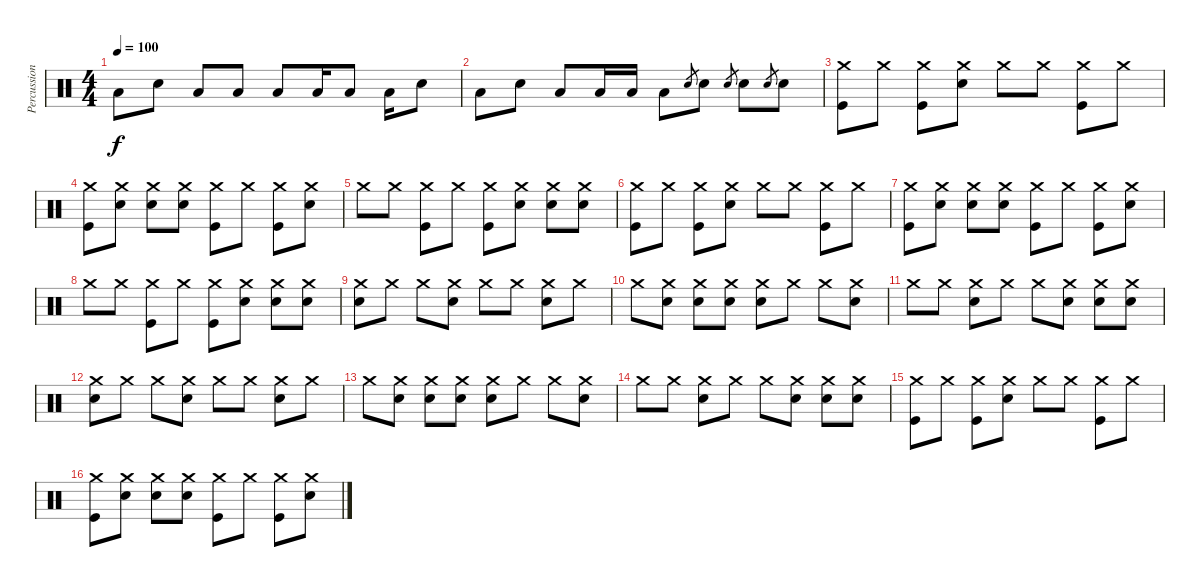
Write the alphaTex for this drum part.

\track ("Percussion" "Percussion") {instrument percussion}
\staff {score}
\articulation defaults
\ts (4 4)
\tempo 100
\clef neutral
\ks c "Low Floor Tom (hit)".8{dy f} "Electric Snare (hit)".8 "Low Floor Tom (hit)".8 "Low Floor Tom (hit)".8 "Low Floor Tom (hit)".8 "Low Floor Tom (hit)".16 "Low Floor Tom (hit)".8 "Low Floor Tom (hit)".16 "Electric Snare (hit)".8
|
"Low Floor Tom (hit)".8 "Electric Snare (hit)".8 "Low Floor Tom (hit)".8 "Low Floor Tom (hit)".16 "Low Floor Tom (hit)".16 "Low Floor Tom (hit)".8 "Electric Snare (hit)".8{gr} "Electric Snare (hit)".8 "Electric Snare (hit)".8{gr} "Electric Snare (hit)".8 "Electric Snare (hit)".8{gr} "Electric Snare (hit)".8 |
("Crash medium (hit)" "Kick (hit)").8 "Crash medium (hit)".8 ("Crash medium (hit)" "Kick (hit)").8 ("Crash medium (hit)" "Electric Snare (hit)").8 "Crash medium (hit)".8 "Crash medium (hit)".8 ("Crash medium (hit)" "Kick (hit)").8 "Crash medium (hit)".8 |
("Crash medium (hit)" "Kick (hit)").8 ("Crash medium (hit)" "Electric Snare (hit)").8 ("Crash medium (hit)" "Electric Snare (hit)").8 ("Crash medium (hit)" "Electric Snare (hit)").8 ("Crash medium (hit)" "Kick (hit)").8 "Crash medium (hit)".8 ("Crash medium (hit)" "Kick (hit)").8 ("Crash medium (hit)" "Electric Snare (hit)").8 |
"Crash medium (hit)".8 "Crash medium (hit)".8 ("Crash medium (hit)" "Kick (hit)").8 "Crash medium (hit)".8 ("Crash medium (hit)" "Kick (hit)").8 ("Crash medium (hit)" "Electric Snare (hit)").8 ("Crash medium (hit)" "Electric Snare (hit)").8 ("Crash medium (hit)" "Electric Snare (hit)").8 |
("Crash medium (hit)" "Kick (hit)").8 "Crash medium (hit)".8 ("Crash medium (hit)" "Kick (hit)").8 ("Crash medium (hit)" "Electric Snare (hit)").8 "Crash medium (hit)".8 "Crash medium (hit)".8 ("Crash medium (hit)" "Kick (hit)").8 "Crash medium (hit)".8 |
("Crash medium (hit)" "Kick (hit)").8 ("Crash medium (hit)" "Electric Snare (hit)").8 ("Crash medium (hit)" "Electric Snare (hit)").8 ("Crash medium (hit)" "Electric Snare (hit)").8 ("Crash medium (hit)" "Kick (hit)").8 "Crash medium (hit)".8 ("Crash medium (hit)" "Kick (hit)").8 ("Crash medium (hit)" "Electric Snare (hit)").8 |
"Crash medium (hit)".8 "Crash medium (hit)".8 ("Crash medium (hit)" "Kick (hit)").8 "Crash medium (hit)".8 ("Crash medium (hit)" "Kick (hit)").8 ("Crash medium (hit)" "Electric Snare (hit)").8 ("Crash medium (hit)" "Electric Snare (hit)").8 ("Crash medium (hit)" "Electric Snare (hit)").8 |
("Crash medium (hit)" "Electric Snare (hit)").8 "Crash medium (hit)".8 "Crash medium (hit)".8 ("Crash medium (hit)" "Electric Snare (hit)").8 "Crash medium (hit)".8 "Crash medium (hit)".8 ("Crash medium (hit)" "Electric Snare (hit)").8 "Crash medium (hit)".8 |
"Crash medium (hit)".8 ("Crash medium (hit)" "Electric Snare (hit)").8 ("Crash medium (hit)" "Electric Snare (hit)").8 ("Crash medium (hit)" "Electric Snare (hit)").8 ("Crash medium (hit)" "Electric Snare (hit)").8 "Crash medium (hit)".8 "Crash medium (hit)".8 ("Crash medium (hit)" "Electric Snare (hit)").8 |
"Crash medium (hit)".8 "Crash medium (hit)".8 ("Crash medium (hit)" "Electric Snare (hit)").8 "Crash medium (hit)".8 "Crash medium (hit)".8 ("Crash medium (hit)" "Electric Snare (hit)").8 ("Crash medium (hit)" "Electric Snare (hit)").8 ("Crash medium (hit)" "Electric Snare (hit)").8 |
("Crash medium (hit)" "Electric Snare (hit)").8 "Crash medium (hit)".8 "Crash medium (hit)".8 ("Crash medium (hit)" "Electric Snare (hit)").8 "Crash medium (hit)".8 "Crash medium (hit)".8 ("Crash medium (hit)" "Electric Snare (hit)").8 "Crash medium (hit)".8 |
"Crash medium (hit)".8 ("Crash medium (hit)" "Electric Snare (hit)").8 ("Crash medium (hit)" "Electric Snare (hit)").8 ("Crash medium (hit)" "Electric Snare (hit)").8 ("Crash medium (hit)" "Electric Snare (hit)").8 "Crash medium (hit)".8 "Crash medium (hit)".8 ("Crash medium (hit)" "Electric Snare (hit)").8 |
"Crash medium (hit)".8 "Crash medium (hit)".8 ("Crash medium (hit)" "Electric Snare (hit)").8 "Crash medium (hit)".8 "Crash medium (hit)".8 ("Crash medium (hit)" "Electric Snare (hit)").8 ("Crash medium (hit)" "Electric Snare (hit)").8 ("Crash medium (hit)" "Electric Snare (hit)").8 |
("Crash medium (hit)" "Kick (hit)").8 "Crash medium (hit)".8 ("Crash medium (hit)" "Kick (hit)").8 ("Crash medium (hit)" "Electric Snare (hit)").8 "Crash medium (hit)".8 "Crash medium (hit)".8 ("Crash medium (hit)" "Kick (hit)").8 "Crash medium (hit)".8 |
("Crash medium (hit)" "Kick (hit)").8 ("Crash medium (hit)" "Electric Snare (hit)").8 ("Crash medium (hit)" "Electric Snare (hit)").8 ("Crash medium (hit)" "Electric Snare (hit)").8 ("Crash medium (hit)" "Kick (hit)").8 "Crash medium (hit)".8 ("Crash medium (hit)" "Kick (hit)").8 ("Crash medium (hit)" "Electric Snare (hit)").8
